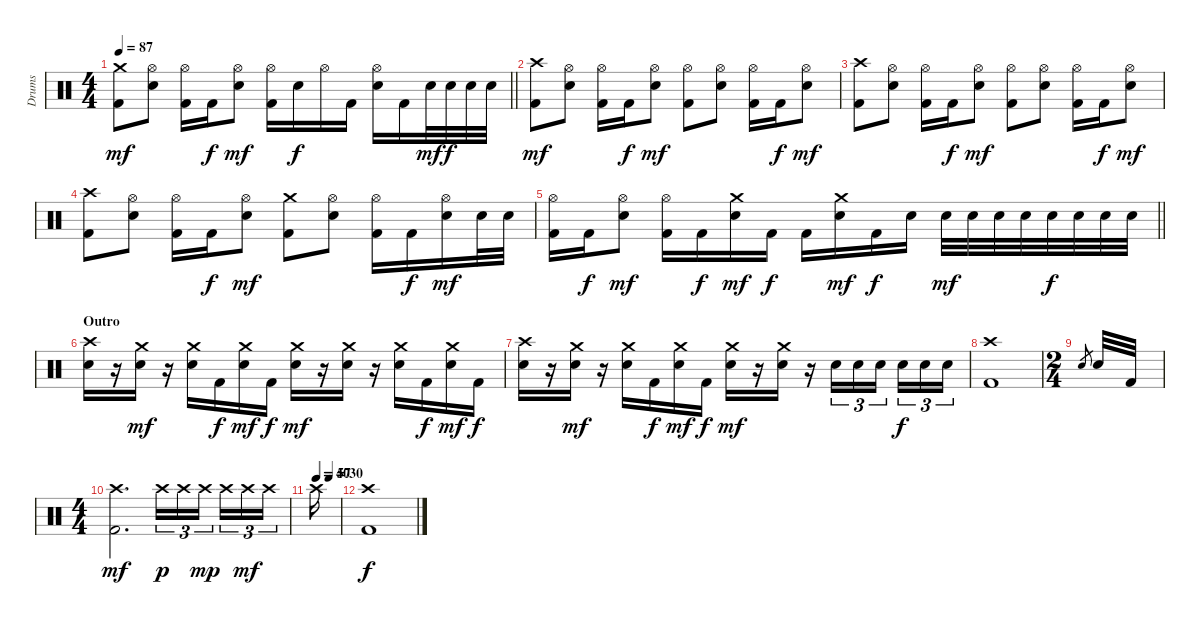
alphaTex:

\track ("Drums" "Drums") {instrument percussion}
\staff {score}
\articulation defaults
\ts (4 4)
\tempo 87
\clef neutral
\barLineRight lightlight
\ks c
("Crash medium (hit)" "Kick (hit) 2").8{dy mf} ("Hi-Hat (open)" "Electric Snare (hit)").8 ("Hi-Hat (open)" "Kick (hit) 2").16 "Kick (hit) 2".16{dy f} ("Hi-Hat (open)" "Electric Snare (hit)").8{dy mf} ("Hi-Hat (open)" "Kick (hit) 2").16 "Electric Snare (hit)".16{dy f} "Hi-Hat (open)".16 "Kick (hit) 2".16 ("Hi-Hat (open)" "Electric Snare (hit)").16 "Kick (hit) 2".16 "Electric Snare (hit)".32{dy mf} "Electric Snare (hit)".32{dy f} "Electric Snare (hit)".32 "Electric Snare (hit)".32 |
("Crash high (hit)" "Kick (hit) 2").8{dy mf} ("Hi-Hat (open)" "Electric Snare (hit)").8 ("Hi-Hat (open)" "Kick (hit) 2").16 "Kick (hit) 2".16{dy f} ("Hi-Hat (open)" "Electric Snare (hit)").8{dy mf} ("Hi-Hat (open)" "Kick (hit) 2").8 ("Hi-Hat (open)" "Electric Snare (hit)").8 ("Hi-Hat (open)" "Kick (hit) 2").16 "Kick (hit) 2".16{dy f} ("Hi-Hat (open)" "Electric Snare (hit)").8{dy mf} |
("Crash high (hit)" "Kick (hit) 2").8 ("Hi-Hat (open)" "Electric Snare (hit)").8 ("Hi-Hat (open)" "Kick (hit) 2").16 "Kick (hit) 2".16{dy f} ("Hi-Hat (open)" "Electric Snare (hit)").8{dy mf} ("Hi-Hat (open)" "Kick (hit) 2").8 ("Hi-Hat (open)" "Electric Snare (hit)").8 ("Hi-Hat (open)" "Kick (hit) 2").16 "Kick (hit) 2".16{dy f} ("Hi-Hat (open)" "Electric Snare (hit)").8{dy mf} |
("Crash high (hit)" "Kick (hit) 2").8 ("Hi-Hat (open)" "Electric Snare (hit)").8 ("Hi-Hat (open)" "Kick (hit) 2").16 "Kick (hit) 2".16{dy f} ("Hi-Hat (open)" "Electric Snare (hit)").8{dy mf} ("Crash medium (hit)" "Kick (hit) 2").8 ("Hi-Hat (open)" "Electric Snare (hit)").8 ("Hi-Hat (open)" "Kick (hit) 2").16 "Kick (hit) 2".16{dy f} ("Hi-Hat (open)" "Electric Snare (hit)").16{dy mf} "Electric Snare (hit)".32 "Electric Snare (hit)".32 |
\barLineRight lightlight
("Hi-Hat (open)" "Kick (hit) 2").16 "Kick (hit) 2".16{dy f} ("Hi-Hat (open)" "Electric Snare (hit)").8{dy mf} ("Hi-Hat (open)" "Kick (hit) 2").16 "Kick (hit) 2".16{dy f} ("Crash medium (hit)" "Electric Snare (hit)").16{dy mf} "Kick (hit) 2".16{dy f} "Kick (hit) 2".16 ("Crash medium (hit)" "Electric Snare (hit)").16{dy mf} "Kick (hit) 2".16{dy f} "Electric Snare (hit)".16 "Electric Snare (hit)".32{dy mf} "Electric Snare (hit)".32 "Electric Snare (hit)".32 "Electric Snare (hit)".32 "Electric Snare (hit)".32{dy f} "Electric Snare (hit)".32 "Electric Snare (hit)".32 "Electric Snare (hit)".32 |
\section ("" "Outro")
("Crash high (hit)" "Electric Snare (hit)").16 r.16 ("Crash medium (hit)" "Electric Snare (hit)").16{dy mf} r.16 ("Crash medium (hit)" "Electric Snare (hit)").16 "Kick (hit) 2".16{dy f} ("Crash medium (hit)" "Electric Snare (hit)").16{dy mf} "Kick (hit) 2".16{dy f} ("Crash medium (hit)" "Electric Snare (hit)").16{dy mf} r.16 ("Crash medium (hit)" "Electric Snare (hit)").16 r.16 ("Crash medium (hit)" "Electric Snare (hit)").16 "Kick (hit) 2".16{dy f} ("Crash medium (hit)" "Electric Snare (hit)").16{dy mf} "Kick (hit) 2".16{dy f} |
("Crash high (hit)" "Electric Snare (hit)").16 r.16 ("Crash medium (hit)" "Electric Snare (hit)").16{dy mf} r.16 ("Crash medium (hit)" "Electric Snare (hit)").16 "Kick (hit) 2".16{dy f} ("Crash medium (hit)" "Electric Snare (hit)").16{dy mf} "Kick (hit) 2".16{dy f} ("Crash medium (hit)" "Electric Snare (hit)").16{dy mf} r.16 ("Crash medium (hit)" "Electric Snare (hit)").16 r.16 "Electric Snare (hit)".16{tu (3 2)} "Electric Snare (hit)".16{tu (3 2)} "Electric Snare (hit)".16{tu (3 2) beam splitsecondary} "Electric Snare (hit)".16{tu (3 2) dy f} "Electric Snare (hit)".16{tu (3 2)} "Electric Snare (hit)".16{tu (3 2)} |
("Crash high (hit)" "Kick (hit) 2").1 |
\ts (2 4)
"Electric Snare (hit)".8{gr} "Electric Snare (hit)".32 "Kick (hit) 2".32 |
\ts (4 4)
("Crash high (hit)" "Kick (hit) 2").2{d dy mf} "Crash high (hit)".16{tu (3 2) dy p} "Crash high (hit)".16{tu (3 2)} "Crash high (hit)".16{tu (3 2) dy mp beam splitsecondary} "Crash high (hit)".16{tu (3 2)} "Crash high (hit)".16{tu (3 2) dy mf} "Crash high (hit)".16{tu (3 2)} |
\tempo (40 0.03125)
\tempo (57 0.0625)
\tempo (30 0.5625)
"Crash high (hit)".16 |
("Crash high (hit)" "Kick (hit) 2").1{dy f}
